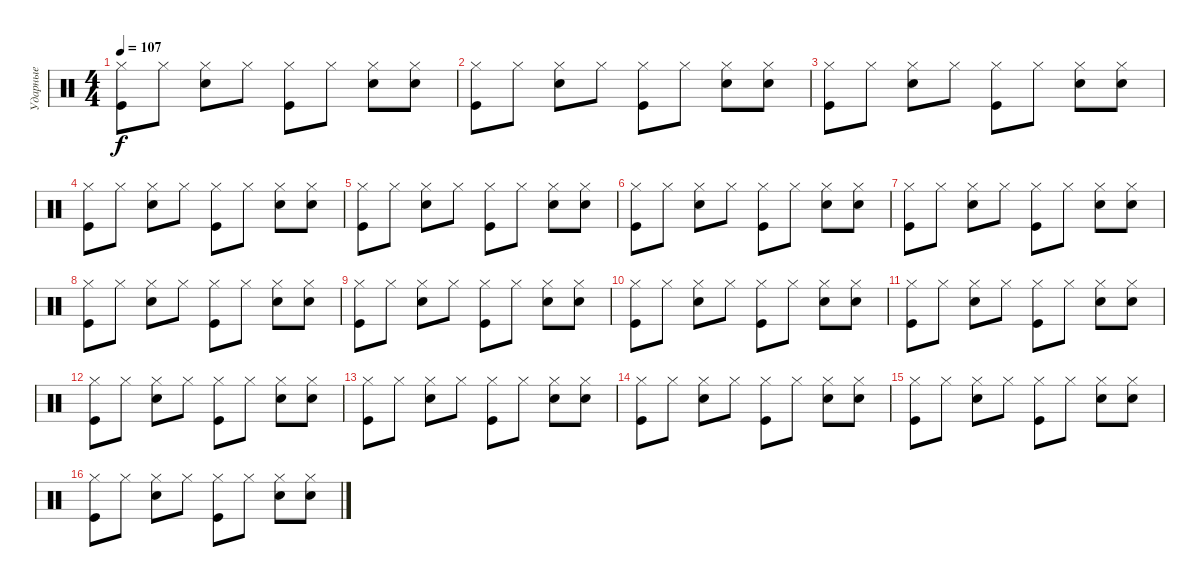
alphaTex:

\track ("Ударные" "Ударные") {instrument percussion}
\staff {score}
\articulation defaults
\ts (4 4)
\tempo 107
\clef neutral
\ks c
("Hi-Hat (closed)" "Kick (hit)").8{dy f} "Hi-Hat (closed)".8 ("Hi-Hat (closed)" "Electric Snare (hit)").8 "Hi-Hat (closed)".8 ("Hi-Hat (closed)" "Kick (hit)").8 "Hi-Hat (closed)".8 ("Hi-Hat (closed)" "Electric Snare (hit)").8 ("Hi-Hat (closed)" "Electric Snare (hit)").8 |
("Hi-Hat (closed)" "Kick (hit)").8 "Hi-Hat (closed)".8 ("Hi-Hat (closed)" "Electric Snare (hit)").8 "Hi-Hat (closed)".8 ("Hi-Hat (closed)" "Kick (hit)").8 "Hi-Hat (closed)".8 ("Hi-Hat (closed)" "Electric Snare (hit)").8 ("Hi-Hat (closed)" "Electric Snare (hit)").8 |
("Hi-Hat (closed)" "Kick (hit)").8 "Hi-Hat (closed)".8 ("Hi-Hat (closed)" "Electric Snare (hit)").8 "Hi-Hat (closed)".8 ("Hi-Hat (closed)" "Kick (hit)").8 "Hi-Hat (closed)".8 ("Hi-Hat (closed)" "Electric Snare (hit)").8 ("Hi-Hat (closed)" "Electric Snare (hit)").8 |
("Hi-Hat (closed)" "Kick (hit)").8 "Hi-Hat (closed)".8 ("Hi-Hat (closed)" "Electric Snare (hit)").8 "Hi-Hat (closed)".8 ("Hi-Hat (closed)" "Kick (hit)").8 "Hi-Hat (closed)".8 ("Hi-Hat (closed)" "Electric Snare (hit)").8 ("Hi-Hat (closed)" "Electric Snare (hit)").8 |
("Hi-Hat (closed)" "Kick (hit)").8 "Hi-Hat (closed)".8 ("Hi-Hat (closed)" "Electric Snare (hit)").8 "Hi-Hat (closed)".8 ("Hi-Hat (closed)" "Kick (hit)").8 "Hi-Hat (closed)".8 ("Hi-Hat (closed)" "Electric Snare (hit)").8 ("Hi-Hat (closed)" "Electric Snare (hit)").8 |
("Hi-Hat (closed)" "Kick (hit)").8 "Hi-Hat (closed)".8 ("Hi-Hat (closed)" "Electric Snare (hit)").8 "Hi-Hat (closed)".8 ("Hi-Hat (closed)" "Kick (hit)").8 "Hi-Hat (closed)".8 ("Hi-Hat (closed)" "Electric Snare (hit)").8 ("Hi-Hat (closed)" "Electric Snare (hit)").8 |
("Hi-Hat (closed)" "Kick (hit)").8 "Hi-Hat (closed)".8 ("Hi-Hat (closed)" "Electric Snare (hit)").8 "Hi-Hat (closed)".8 ("Hi-Hat (closed)" "Kick (hit)").8 "Hi-Hat (closed)".8 ("Hi-Hat (closed)" "Electric Snare (hit)").8 ("Hi-Hat (closed)" "Electric Snare (hit)").8 |
("Hi-Hat (closed)" "Kick (hit)").8 "Hi-Hat (closed)".8 ("Hi-Hat (closed)" "Electric Snare (hit)").8 "Hi-Hat (closed)".8 ("Hi-Hat (closed)" "Kick (hit)").8 "Hi-Hat (closed)".8 ("Hi-Hat (closed)" "Electric Snare (hit)").8 ("Hi-Hat (closed)" "Electric Snare (hit)").8 |
("Hi-Hat (closed)" "Kick (hit)").8 "Hi-Hat (closed)".8 ("Hi-Hat (closed)" "Electric Snare (hit)").8 "Hi-Hat (closed)".8 ("Hi-Hat (closed)" "Kick (hit)").8 "Hi-Hat (closed)".8 ("Hi-Hat (closed)" "Electric Snare (hit)").8 ("Hi-Hat (closed)" "Electric Snare (hit)").8 |
("Hi-Hat (closed)" "Kick (hit)").8 "Hi-Hat (closed)".8 ("Hi-Hat (closed)" "Electric Snare (hit)").8 "Hi-Hat (closed)".8 ("Hi-Hat (closed)" "Kick (hit)").8 "Hi-Hat (closed)".8 ("Hi-Hat (closed)" "Electric Snare (hit)").8 ("Hi-Hat (closed)" "Electric Snare (hit)").8 |
("Hi-Hat (closed)" "Kick (hit)").8 "Hi-Hat (closed)".8 ("Hi-Hat (closed)" "Electric Snare (hit)").8 "Hi-Hat (closed)".8 ("Hi-Hat (closed)" "Kick (hit)").8 "Hi-Hat (closed)".8 ("Hi-Hat (closed)" "Electric Snare (hit)").8 ("Hi-Hat (closed)" "Electric Snare (hit)").8 |
("Hi-Hat (closed)" "Kick (hit)").8 "Hi-Hat (closed)".8 ("Hi-Hat (closed)" "Electric Snare (hit)").8 "Hi-Hat (closed)".8 ("Hi-Hat (closed)" "Kick (hit)").8 "Hi-Hat (closed)".8 ("Hi-Hat (closed)" "Electric Snare (hit)").8 ("Hi-Hat (closed)" "Electric Snare (hit)").8 |
("Hi-Hat (closed)" "Kick (hit)").8 "Hi-Hat (closed)".8 ("Hi-Hat (closed)" "Electric Snare (hit)").8 "Hi-Hat (closed)".8 ("Hi-Hat (closed)" "Kick (hit)").8 "Hi-Hat (closed)".8 ("Hi-Hat (closed)" "Electric Snare (hit)").8 ("Hi-Hat (closed)" "Electric Snare (hit)").8 |
("Hi-Hat (closed)" "Kick (hit)").8 "Hi-Hat (closed)".8 ("Hi-Hat (closed)" "Electric Snare (hit)").8 "Hi-Hat (closed)".8 ("Hi-Hat (closed)" "Kick (hit)").8 "Hi-Hat (closed)".8 ("Hi-Hat (closed)" "Electric Snare (hit)").8 ("Hi-Hat (closed)" "Electric Snare (hit)").8 |
("Hi-Hat (closed)" "Kick (hit)").8 "Hi-Hat (closed)".8 ("Hi-Hat (closed)" "Electric Snare (hit)").8 "Hi-Hat (closed)".8 ("Hi-Hat (closed)" "Kick (hit)").8 "Hi-Hat (closed)".8 ("Hi-Hat (closed)" "Electric Snare (hit)").8 ("Hi-Hat (closed)" "Electric Snare (hit)").8 |
("Hi-Hat (closed)" "Kick (hit)").8 "Hi-Hat (closed)".8 ("Hi-Hat (closed)" "Electric Snare (hit)").8 "Hi-Hat (closed)".8 ("Hi-Hat (closed)" "Kick (hit)").8 "Hi-Hat (closed)".8 ("Hi-Hat (closed)" "Electric Snare (hit)").8 ("Hi-Hat (closed)" "Electric Snare (hit)").8
